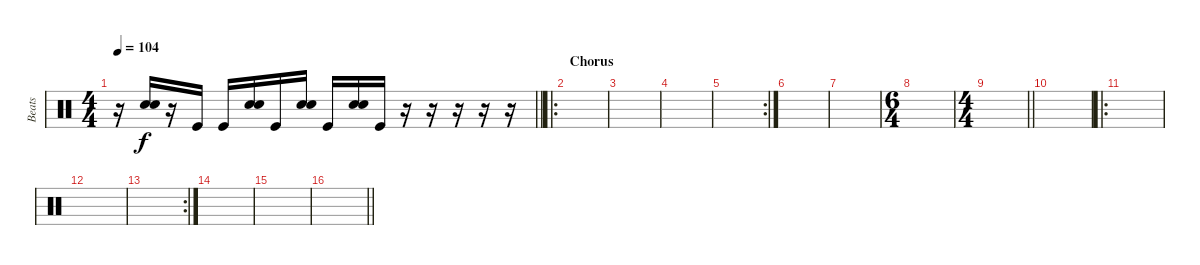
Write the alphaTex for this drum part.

\track ("Beats" "Beats") {instrument percussion}
\staff {score}
\articulation defaults
\ts (4 4)
\tempo 104
\clef neutral
\barLineRight lightlight
\ks c
r.16{dy f} ("Snare (hit) 2" "Snare (hit) 2").16 r.16 "Kick (hit)".16 "Kick (hit)".16 ("Snare (hit) 2" "Snare (hit) 2").16 "Kick (hit)".16 ("Snare (hit) 2" "Snare (hit) 2").16 "Kick (hit)".16 ("Snare (hit) 2" "Snare (hit) 2").16 "Kick (hit)".16 r.16 r.16 r.16 r.16 r.16 |
\ro
\section ("" "Chorus")
|
|
|
\rc 2
|
|
|
\ts (6 4)
|
\ts (4 4)
\barLineRight lightlight
|
|
\ro
|
|
\rc 2
|
|
|
\barLineRight lightlight
